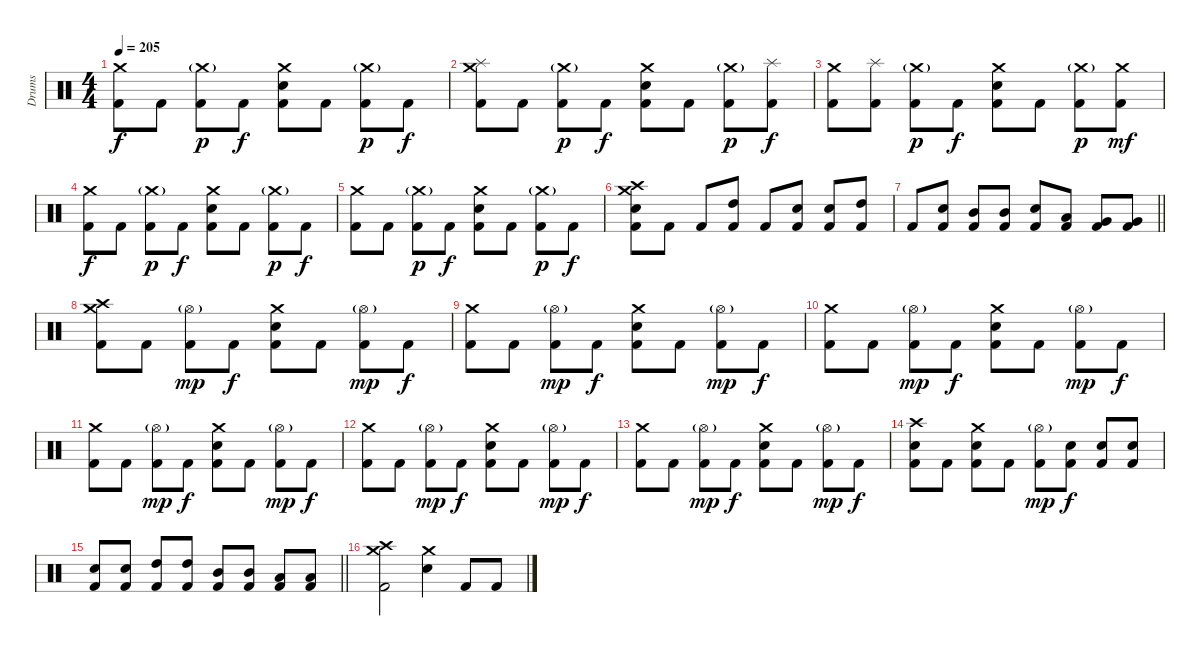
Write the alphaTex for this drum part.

\track ("Drums" "Drums") {instrument percussion}
\staff {score}
\articulation defaults
\ts (4 4)
\tempo 205
\clef neutral
\ks c
("Crash medium (hit)" "Kick (hit) 2").8{dy f} "Kick (hit) 2".8 ("Crash medium (hit)"{g} "Kick (hit) 2").8{dy p} "Kick (hit) 2".8{dy f} ("Crash medium (hit)" "Electric Snare (hit)" "Kick (hit) 2").8 "Kick (hit) 2".8 ("Crash medium (hit)"{g} "Kick (hit) 2").8{dy p} "Kick (hit) 2".8{dy f} |
("Crash medium (hit)" "Splash (hit)" "Kick (hit) 2").8 "Kick (hit) 2".8 ("Crash medium (hit)"{g} "Kick (hit) 2").8{dy p} "Kick (hit) 2".8{dy f} ("Crash medium (hit)" "Electric Snare (hit)" "Kick (hit) 2").8 "Kick (hit) 2".8 ("Crash medium (hit)"{g} "Kick (hit) 2").8{dy p} ("Splash (hit)" "Kick (hit) 2").8{dy f} |
("Crash medium (hit)" "Kick (hit) 2").8 ("Splash (hit)" "Kick (hit) 2").8 ("Crash medium (hit)"{g} "Kick (hit) 2").8{dy p} "Kick (hit) 2".8{dy f} ("Crash medium (hit)" "Electric Snare (hit)" "Kick (hit) 2").8 "Kick (hit) 2".8 ("Crash medium (hit)"{g} "Kick (hit) 2").8{dy p} ("Crash medium (hit)" "Kick (hit) 2").8{dy mf} |
("Crash medium (hit)" "Kick (hit) 2").8{dy f} "Kick (hit) 2".8 ("Crash medium (hit)"{g} "Kick (hit) 2").8{dy p} "Kick (hit) 2".8{dy f} ("Crash medium (hit)" "Electric Snare (hit)" "Kick (hit) 2").8 "Kick (hit) 2".8 ("Crash medium (hit)"{g} "Kick (hit) 2").8{dy p} "Kick (hit) 2".8{dy f} |
("Crash medium (hit)" "Kick (hit) 2").8 "Kick (hit) 2".8 ("Crash medium (hit)"{g} "Kick (hit) 2").8{dy p} "Kick (hit) 2".8{dy f} ("Crash medium (hit)" "Electric Snare (hit)" "Kick (hit) 2").8 "Kick (hit) 2".8 ("Crash medium (hit)"{g} "Kick (hit) 2").8{dy p} "Kick (hit) 2".8{dy f} |
("Crash high (hit)" "Crash medium (hit)" "Electric Snare (hit)" "Kick (hit) 2").8 "Kick (hit) 2".8 "Kick (hit) 2".8 ("High Tom (hit)" "Kick (hit) 2").8 "Kick (hit) 2".8 ("Electric Snare (hit)" "Kick (hit) 2").8 ("Electric Snare (hit)" "Kick (hit) 2").8 ("High Tom (hit)" "Kick (hit) 2").8 |
\barLineRight lightlight "Kick (hit) 2".8
("Electric Snare (hit)" "Kick (hit) 2").8 ("Mid Tom (hit)" "Kick (hit) 2").8 ("Mid Tom (hit)" "Kick (hit) 2").8 ("Electric Snare (hit)" "Kick (hit) 2").8 ("Low Tom (hit)" "Kick (hit) 2").8 ("Very Low Tom (hit)" "Kick (hit) 2").8 ("Very Low Tom (hit)" "Kick (hit) 2").8 |
("Crash medium (hit)" "Crash high (hit)" "Kick (hit) 2").8 "Kick (hit) 2".8 ("Hi-Hat (open)"{g} "Kick (hit) 2").8{dy mp} "Kick (hit) 2".8{dy f} ("Crash medium (hit)" "Electric Snare (hit)" "Kick (hit) 2").8 "Kick (hit) 2".8 ("Hi-Hat (open)"{g} "Kick (hit) 2").8{dy mp} "Kick (hit) 2".8{dy f} |
("Crash medium (hit)" "Kick (hit) 2").8 "Kick (hit) 2".8 ("Hi-Hat (open)"{g} "Kick (hit) 2").8{dy mp} "Kick (hit) 2".8{dy f} ("Crash medium (hit)" "Electric Snare (hit)" "Kick (hit) 2").8 "Kick (hit) 2".8 ("Hi-Hat (open)"{g} "Kick (hit) 2").8{dy mp} "Kick (hit) 2".8{dy f} |
("Crash medium (hit)" "Kick (hit) 2").8 "Kick (hit) 2".8 ("Hi-Hat (open)"{g} "Kick (hit) 2").8{dy mp} "Kick (hit) 2".8{dy f} ("Crash medium (hit)" "Electric Snare (hit)" "Kick (hit) 2").8 "Kick (hit) 2".8 ("Hi-Hat (open)"{g} "Kick (hit) 2").8{dy mp} "Kick (hit) 2".8{dy f} |
("Crash medium (hit)" "Kick (hit) 2").8 "Kick (hit) 2".8 ("Hi-Hat (open)"{g} "Kick (hit) 2").8{dy mp} "Kick (hit) 2".8{dy f} ("Crash medium (hit)" "Electric Snare (hit)" "Kick (hit) 2").8 "Kick (hit) 2".8 ("Hi-Hat (open)"{g} "Kick (hit) 2").8{dy mp} "Kick (hit) 2".8{dy f} |
("Crash medium (hit)" "Kick (hit) 2").8 "Kick (hit) 2".8 ("Hi-Hat (open)"{g} "Kick (hit) 2").8{dy mp} "Kick (hit) 2".8{dy f} ("Crash medium (hit)" "Electric Snare (hit)" "Kick (hit) 2").8 "Kick (hit) 2".8 ("Hi-Hat (open)"{g} "Kick (hit) 2").8{dy mp} "Kick (hit) 2".8{dy f} |
("Crash medium (hit)" "Kick (hit) 2").8 "Kick (hit) 2".8 ("Hi-Hat (open)"{g} "Kick (hit) 2").8{dy mp} "Kick (hit) 2".8{dy f} ("Crash medium (hit)" "Electric Snare (hit)" "Kick (hit) 2").8 "Kick (hit) 2".8 ("Hi-Hat (open)"{g} "Kick (hit) 2").8{dy mp} "Kick (hit) 2".8{dy f} |
("Crash high (hit)" "Electric Snare (hit)" "Kick (hit) 2").8 "Kick (hit) 2".8 ("Crash medium (hit)" "Electric Snare (hit)" "Kick (hit) 2").8 "Kick (hit) 2".8 ("Hi-Hat (open)"{g} "Kick (hit) 2").8{dy mp} ("Electric Snare (hit)" "Kick (hit) 2").8{dy f} ("Electric Snare (hit)" "Kick (hit) 2").8 ("Electric Snare (hit)" "Kick (hit) 2").8 |
\barLineRight lightlight
("Electric Snare (hit)" "Kick (hit) 2").8 ("Electric Snare (hit)" "Kick (hit) 2").8 ("High Tom (hit)" "Kick (hit) 2").8 ("High Tom (hit)" "Kick (hit) 2").8 ("Mid Tom (hit)" "Kick (hit) 2").8 ("Mid Tom (hit)" "Kick (hit) 2").8 ("Low Tom (hit)" "Kick (hit) 2").8 ("Low Tom (hit)" "Kick (hit) 2").8 |
("Crash high (hit)" "Crash medium (hit)" "Kick (hit) 2").2 ("Crash medium (hit)" "Electric Snare (hit)").4 "Kick (hit) 2".8 "Kick (hit) 2".8
